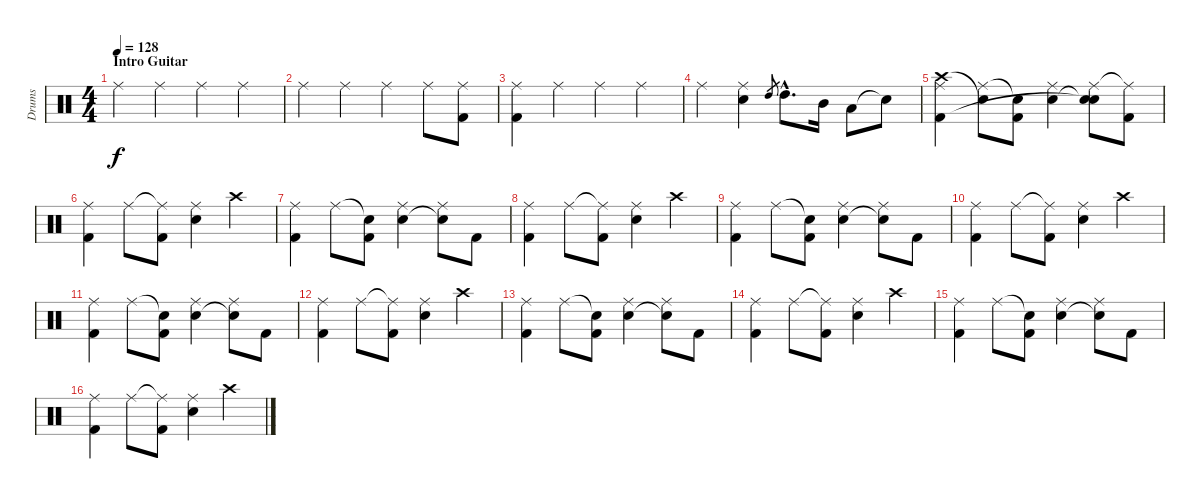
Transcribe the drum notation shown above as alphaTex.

\track ("Drums" "Drums") {instrument percussion}
\staff {score}
\articulation defaults
\ts (4 4)
\section ("" "Intro Guitar")
\tempo 128
\clef neutral
\ks c "Ride (middle)".4{dy f} "Ride (middle)".4 "Ride (middle)".4 "Ride (middle)".4
|
"Ride (middle)".4 "Ride (middle)".4 "Ride (middle)".4 "Ride (middle)".8 ("Ride (middle)" "Kick (hit) 2").8 |
("Ride (middle)" "Kick (hit) 2").4 "Ride (middle)".4 "Ride (middle)".4 "Ride (middle)".4 |
"Ride (middle)".4 ("Ride (middle)" "Snare (hit) 2").4 "High Tom (hit)".8{gr} "High Tom (hit)"{hac}.8{d} "Mid Tom (hit)".16 "Low Tom (hit)".8 "Snare (hit)"{t}.8 |
("Ride (middle)" "Crash high (hit)" "Kick (hit) 2").4 ("Ride (middle)" "Snare (hit)"{t}).8 ("Snare (hit)"{t} "Kick (hit) 2").8 ("Ride (middle)" "Snare (hit) 2").4 ("Ride (middle)" "Snare (hit)"{t} "Snare (hit)"{t}).8 ("Ride (middle)"{t} "Kick (hit) 2").8 |
("Ride (middle)" "Kick (hit) 2").4 "Ride (middle)".8 ("Ride (middle)"{t} "Kick (hit) 2").8 ("Ride (middle)" "Snare (hit) 2").4 "Crash high (hit)".4 |
("Ride (middle)" "Kick (hit) 2").4 "Ride (middle)".8 ("Snare (hit)"{t} "Kick (hit) 2").8 ("Ride (middle)" "Snare (hit) 2").4 ("Ride (middle)" "Snare (hit)"{t}).8 "Kick (hit) 2".8 |
("Ride (middle)" "Kick (hit) 2").4 "Ride (middle)".8 ("Ride (middle)"{t} "Kick (hit) 2").8 ("Ride (middle)" "Snare (hit) 2").4 "Crash high (hit)".4 |
("Ride (middle)" "Kick (hit) 2").4 "Ride (middle)".8 ("Snare (hit)"{t} "Kick (hit) 2").8 ("Ride (middle)" "Snare (hit) 2").4 ("Ride (middle)" "Snare (hit)"{t}).8 "Kick (hit) 2".8 |
("Ride (middle)" "Kick (hit) 2").4 "Ride (middle)".8 ("Ride (middle)"{t} "Kick (hit) 2").8 ("Ride (middle)" "Snare (hit) 2").4 "Crash high (hit)".4 |
("Ride (middle)" "Kick (hit) 2").4 "Ride (middle)".8 ("Snare (hit)"{t} "Kick (hit) 2").8 ("Ride (middle)" "Snare (hit) 2").4 ("Ride (middle)" "Snare (hit)"{t}).8 "Kick (hit) 2".8 |
("Ride (middle)" "Kick (hit) 2").4 "Ride (middle)".8 ("Ride (middle)"{t} "Kick (hit) 2").8 ("Ride (middle)" "Snare (hit) 2").4 "Crash high (hit)".4 |
("Ride (middle)" "Kick (hit) 2").4 "Ride (middle)".8 ("Snare (hit)"{t} "Kick (hit) 2").8 ("Ride (middle)" "Snare (hit) 2").4 ("Ride (middle)" "Snare (hit)"{t}).8 "Kick (hit) 2".8 |
("Ride (middle)" "Kick (hit) 2").4 "Ride (middle)".8 ("Ride (middle)"{t} "Kick (hit) 2").8 ("Ride (middle)" "Snare (hit) 2").4 "Crash high (hit)".4 |
("Ride (middle)" "Kick (hit) 2").4 "Ride (middle)".8 ("Snare (hit)"{t} "Kick (hit) 2").8 ("Ride (middle)" "Snare (hit) 2").4 ("Ride (middle)" "Snare (hit)"{t}).8 "Kick (hit) 2".8 |
("Ride (middle)" "Kick (hit) 2").4 "Ride (middle)".8 ("Ride (middle)"{t} "Kick (hit) 2").8 ("Ride (middle)" "Snare (hit) 2").4 "Crash high (hit)".4
